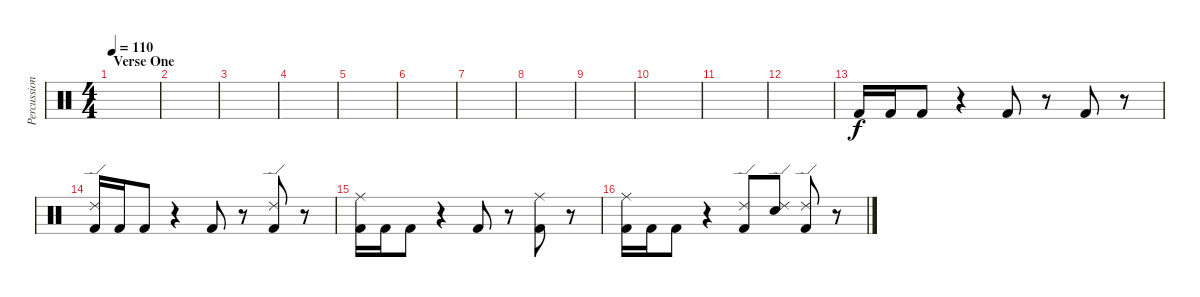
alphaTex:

\track ("Percussion" "Percussion") {instrument percussion}
\staff {score}
\articulation defaults
\ts (4 4)
\section ("" "Verse One")
\tempo 110
\clef neutral
\ks c
|
|
|
|
|
|
|
|
|
|
|
|
"Kick (hit) 2".16 "Kick (hit) 2".16 "Kick (hit) 2".8 r.4 "Kick (hit) 2".8 r.8 "Kick (hit) 2".8 r.8 |
("Ride (edge) 2" "Kick (hit) 2").16 "Kick (hit) 2".16 "Kick (hit) 2".8 r.4 "Kick (hit) 2".8 r.8 ("Ride (edge) 2" "Kick (hit) 2").8 r.8 |
("Ride (middle)" "Kick (hit) 2").16 "Kick (hit) 2".16 "Kick (hit) 2".8 r.4 "Kick (hit) 2".8 r.8 ("Ride (middle)" "Kick (hit) 2").8 r.8 |
("Ride (middle)" "Kick (hit) 2").16 "Kick (hit) 2".16 "Kick (hit) 2".8 r.4 ("Ride (edge) 2" "Kick (hit) 2").8 ("Ride (edge) 2" "Snare (hit) 2").8 ("Ride (edge) 2" "Kick (hit) 2").8 r.8
